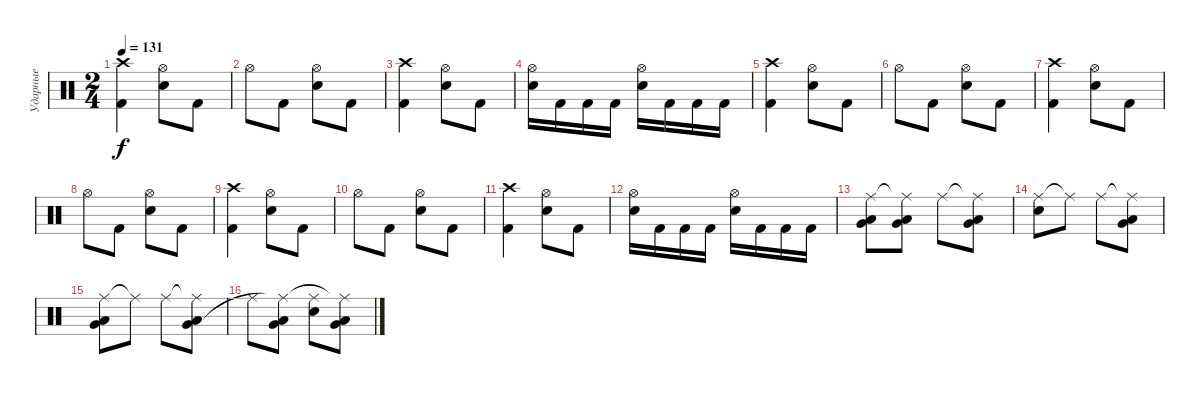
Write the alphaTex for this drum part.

\track ("Ударные" "Ударные") {instrument percussion}
\staff {score}
\articulation defaults
\ts (2 4)
\tempo 131
\clef neutral
\ks c
("Crash high (hit)" "Kick (hit) 2").4{dy f} ("Hi-Hat (open)" "Electric Snare (hit)").8 "Kick (hit) 2".8 |
"Hi-Hat (open)".8 "Kick (hit) 2".8 ("Hi-Hat (open)" "Electric Snare (hit)").8 "Kick (hit) 2".8 |
("Crash high (hit)" "Kick (hit) 2").4 ("Hi-Hat (open)" "Electric Snare (hit)").8 "Kick (hit) 2".8 |
("Hi-Hat (open)" "Electric Snare (hit)").16 "Kick (hit) 2".16 "Kick (hit) 2".16 "Kick (hit) 2".16 ("Hi-Hat (open)" "Electric Snare (hit)").16 "Kick (hit) 2".16 "Kick (hit) 2".16 "Kick (hit) 2".16 |
("Crash high (hit)" "Kick (hit) 2").4 ("Hi-Hat (open)" "Electric Snare (hit)").8 "Kick (hit) 2".8 |
"Hi-Hat (open)".8 "Kick (hit) 2".8 ("Hi-Hat (open)" "Electric Snare (hit)").8 "Kick (hit) 2".8 |
("Crash high (hit)" "Kick (hit) 2").4 ("Hi-Hat (open)" "Electric Snare (hit)").8 "Kick (hit) 2".8 |
"Hi-Hat (open)".8 "Kick (hit) 2".8 ("Hi-Hat (open)" "Electric Snare (hit)").8 "Kick (hit) 2".8 |
("Crash high (hit)" "Kick (hit) 2").4 ("Hi-Hat (open)" "Electric Snare (hit)").8 "Kick (hit) 2".8 |
"Hi-Hat (open)".8 "Kick (hit) 2".8 ("Hi-Hat (open)" "Electric Snare (hit)").8 "Kick (hit) 2".8 |
("Crash high (hit)" "Kick (hit) 2").4 ("Hi-Hat (open)" "Electric Snare (hit)").8 "Kick (hit) 2".8 |
("Hi-Hat (open)" "Electric Snare (hit)").16 "Kick (hit) 2".16 "Kick (hit) 2".16 "Kick (hit) 2".16 ("Hi-Hat (open)" "Electric Snare (hit)").16 "Kick (hit) 2".16 "Kick (hit) 2".16 "Kick (hit) 2".16 |
("Ride (middle)" "Low Floor Tom (hit)" "Very Low Tom (hit)").8 ("Ride (middle)"{t} "Low Floor Tom (hit)" "Very Low Tom (hit)").8 "Ride (middle)".8 ("Ride (middle)"{t} "Low Floor Tom (hit)" "Very Low Tom (hit)").8 |
("Ride (middle)" "Electric Snare (hit)").8 "Ride (middle)"{t}.8 "Ride (middle)".8 ("Ride (middle)"{t} "Low Floor Tom (hit)" "Very Low Tom (hit)").8 |
("Ride (middle)" "Low Floor Tom (hit)" "Very Low Tom (hit)").8 "Ride (middle)"{t}.8 "Ride (middle)".8 ("Ride (middle)"{t} "Low Floor Tom (hit)" "Very Low Tom (hit)").8 |
"Ride (middle)".8 ("Low Floor Tom (hit)" "Very Low Tom (hit)" "Ride (middle)"{t}).8 ("Electric Snare (hit)" "Ride (middle)").8 ("Low Floor Tom (hit)" "Very Low Tom (hit)" "Ride (middle)"{t}).8
